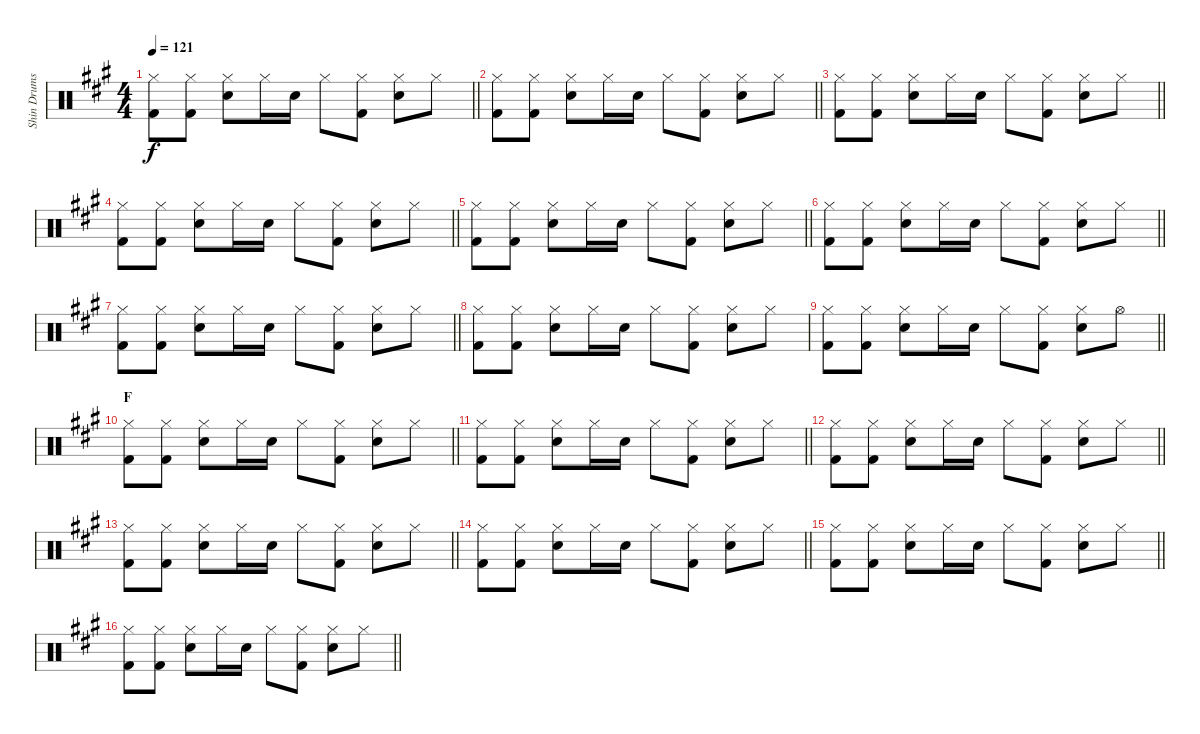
\track ("Shin Drums" "Shin Drums") {instrument percussion}
\staff {score}
\articulation defaults
\ts (4 4)
\tempo 121
\clef neutral
\barLineRight lightlight
\ks a
("Hi-Hat (closed)" "Kick (hit) 2").8{dy f} ("Hi-Hat (closed)" "Kick (hit) 2").8 ("Hi-Hat (closed)" "Snare (hit) 2").8 "Hi-Hat (closed)".16 "Snare (hit) 2".16 "Hi-Hat (closed)".8 ("Hi-Hat (closed)" "Kick (hit) 2").8 ("Hi-Hat (closed)" "Snare (hit) 2").8 "Hi-Hat (closed)".8 |
\section ("" "")
\barLineRight lightlight
("Hi-Hat (closed)" "Kick (hit) 2").8 ("Hi-Hat (closed)" "Kick (hit) 2").8 ("Hi-Hat (closed)" "Snare (hit) 2").8 "Hi-Hat (closed)".16 "Snare (hit) 2".16 "Hi-Hat (closed)".8 ("Hi-Hat (closed)" "Kick (hit) 2").8 ("Hi-Hat (closed)" "Snare (hit) 2").8 "Hi-Hat (closed)".8 |
\barLineRight lightlight
("Hi-Hat (closed)" "Kick (hit) 2").8 ("Hi-Hat (closed)" "Kick (hit) 2").8 ("Hi-Hat (closed)" "Snare (hit) 2").8 "Hi-Hat (closed)".16 "Snare (hit) 2".16 "Hi-Hat (closed)".8 ("Hi-Hat (closed)" "Kick (hit) 2").8 ("Hi-Hat (closed)" "Snare (hit) 2").8 "Hi-Hat (closed)".8 |
\section ("" "")
\barLineRight lightlight
("Hi-Hat (closed)" "Kick (hit) 2").8 ("Hi-Hat (closed)" "Kick (hit) 2").8 ("Hi-Hat (closed)" "Snare (hit) 2").8 "Hi-Hat (closed)".16 "Snare (hit) 2".16 "Hi-Hat (closed)".8 ("Hi-Hat (closed)" "Kick (hit) 2").8 ("Hi-Hat (closed)" "Snare (hit) 2").8 "Hi-Hat (closed)".8 |
\barLineRight lightlight
("Hi-Hat (closed)" "Kick (hit) 2").8 ("Hi-Hat (closed)" "Kick (hit) 2").8 ("Hi-Hat (closed)" "Snare (hit) 2").8 "Hi-Hat (closed)".16 "Snare (hit) 2".16 "Hi-Hat (closed)".8 ("Hi-Hat (closed)" "Kick (hit) 2").8 ("Hi-Hat (closed)" "Snare (hit) 2").8 "Hi-Hat (closed)".8 |
\barLineRight lightlight
("Hi-Hat (closed)" "Kick (hit) 2").8 ("Hi-Hat (closed)" "Kick (hit) 2").8 ("Hi-Hat (closed)" "Snare (hit) 2").8 "Hi-Hat (closed)".16 "Snare (hit) 2".16 "Hi-Hat (closed)".8 ("Hi-Hat (closed)" "Kick (hit) 2").8 ("Hi-Hat (closed)" "Snare (hit) 2").8 "Hi-Hat (closed)".8 |
\barLineRight lightlight
("Hi-Hat (closed)" "Kick (hit) 2").8 ("Hi-Hat (closed)" "Kick (hit) 2").8 ("Hi-Hat (closed)" "Snare (hit) 2").8 "Hi-Hat (closed)".16 "Snare (hit) 2".16 "Hi-Hat (closed)".8 ("Hi-Hat (closed)" "Kick (hit) 2").8 ("Hi-Hat (closed)" "Snare (hit) 2").8 "Hi-Hat (closed)".8 |
\section ("" "")
("Hi-Hat (closed)" "Kick (hit) 2").8 ("Hi-Hat (closed)" "Kick (hit) 2").8 ("Hi-Hat (closed)" "Snare (hit) 2").8 "Hi-Hat (closed)".16 "Snare (hit) 2".16 "Hi-Hat (closed)".8 ("Hi-Hat (closed)" "Kick (hit) 2").8 ("Hi-Hat (closed)" "Snare (hit) 2").8 "Hi-Hat (closed)".8 |
\barLineRight lightlight
("Hi-Hat (closed)" "Kick (hit) 2").8 ("Hi-Hat (closed)" "Kick (hit) 2").8 ("Hi-Hat (closed)" "Snare (hit) 2").8 "Hi-Hat (closed)".16 "Snare (hit) 2".16 "Hi-Hat (closed)".8 ("Hi-Hat (closed)" "Kick (hit) 2").8 ("Hi-Hat (closed)" "Snare (hit) 2").8 "Hi-Hat (open)".8 |
\section ("" "F")
\barLineRight lightlight
("Hi-Hat (closed)" "Kick (hit) 2").8 ("Hi-Hat (closed)" "Kick (hit) 2").8 ("Hi-Hat (closed)" "Snare (hit) 2").8 "Hi-Hat (closed)".16 "Snare (hit) 2".16 "Hi-Hat (closed)".8 ("Hi-Hat (closed)" "Kick (hit) 2").8 ("Hi-Hat (closed)" "Snare (hit) 2").8 "Hi-Hat (closed)".8 |
\barLineRight lightlight
("Hi-Hat (closed)" "Kick (hit) 2").8 ("Hi-Hat (closed)" "Kick (hit) 2").8 ("Hi-Hat (closed)" "Snare (hit) 2").8 "Hi-Hat (closed)".16 "Snare (hit) 2".16 "Hi-Hat (closed)".8 ("Hi-Hat (closed)" "Kick (hit) 2").8 ("Hi-Hat (closed)" "Snare (hit) 2").8 "Hi-Hat (closed)".8 |
\barLineRight lightlight
("Hi-Hat (closed)" "Kick (hit) 2").8 ("Hi-Hat (closed)" "Kick (hit) 2").8 ("Hi-Hat (closed)" "Snare (hit) 2").8 "Hi-Hat (closed)".16 "Snare (hit) 2".16 "Hi-Hat (closed)".8 ("Hi-Hat (closed)" "Kick (hit) 2").8 ("Hi-Hat (closed)" "Snare (hit) 2").8 "Hi-Hat (closed)".8 |
\barLineRight lightlight
("Hi-Hat (closed)" "Kick (hit) 2").8 ("Hi-Hat (closed)" "Kick (hit) 2").8 ("Hi-Hat (closed)" "Snare (hit) 2").8 "Hi-Hat (closed)".16 "Snare (hit) 2".16 "Hi-Hat (closed)".8 ("Hi-Hat (closed)" "Kick (hit) 2").8 ("Hi-Hat (closed)" "Snare (hit) 2").8 "Hi-Hat (closed)".8 |
\barLineRight lightlight
("Hi-Hat (closed)" "Kick (hit) 2").8 ("Hi-Hat (closed)" "Kick (hit) 2").8 ("Hi-Hat (closed)" "Snare (hit) 2").8 "Hi-Hat (closed)".16 "Snare (hit) 2".16 "Hi-Hat (closed)".8 ("Hi-Hat (closed)" "Kick (hit) 2").8 ("Hi-Hat (closed)" "Snare (hit) 2").8 "Hi-Hat (closed)".8 |
\section ("" "")
\barLineRight lightlight
("Hi-Hat (closed)" "Kick (hit) 2").8 ("Hi-Hat (closed)" "Kick (hit) 2").8 ("Hi-Hat (closed)" "Snare (hit) 2").8 "Hi-Hat (closed)".16 "Snare (hit) 2".16 "Hi-Hat (closed)".8 ("Hi-Hat (closed)" "Kick (hit) 2").8 ("Hi-Hat (closed)" "Snare (hit) 2").8 "Hi-Hat (closed)".8 |
\barLineRight lightlight
("Hi-Hat (closed)" "Kick (hit) 2").8 ("Hi-Hat (closed)" "Kick (hit) 2").8 ("Hi-Hat (closed)" "Snare (hit) 2").8 "Hi-Hat (closed)".16 "Snare (hit) 2".16 "Hi-Hat (closed)".8 ("Hi-Hat (closed)" "Kick (hit) 2").8 ("Hi-Hat (closed)" "Snare (hit) 2").8 "Hi-Hat (closed)".8
